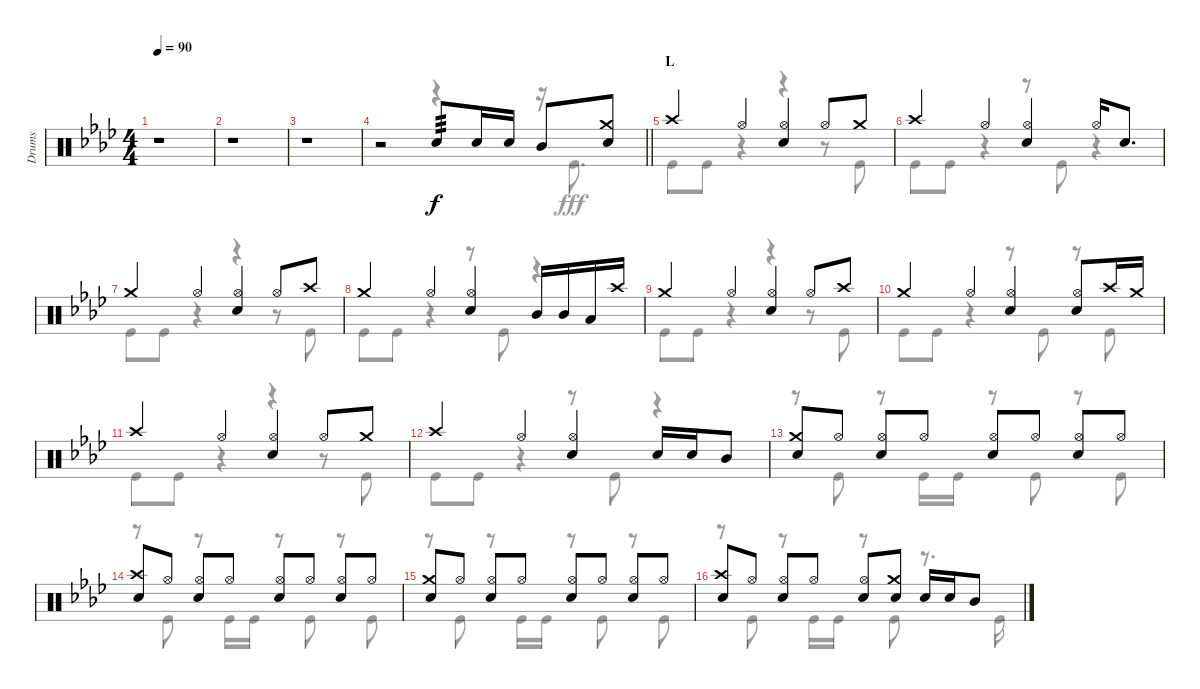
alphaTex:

\track ("Drums" "Drums") {instrument percussion}
\staff {score}
\articulation defaults
\voice
\ts (4 4)
\tempo 90
\clef neutral
\ks ab
r.1{dy f} |
r.1 |
r.1 |
\barLineRight lightlight
r.2 "Snare (hit) 2".8{tp 3} "Snare (hit) 2".16 "Snare (hit) 2".16 "Mid Tom (hit)".8 ("Crash medium (hit)" "Snare (hit) 2").8 |
\section ("" "L")
"Crash high (hit)".4 "Hi-Hat (open)".4 ("Hi-Hat (open)" "Snare (hit) 2").4 "Hi-Hat (open)".8 "Crash medium (hit)".8 |
"Crash high (hit)".4 "Hi-Hat (open)".4 ("Hi-Hat (open)" "Snare (hit) 2").4 "Hi-Hat (open)".16 "Snare (hit) 2".8{d} |
"Crash medium (hit)".4 "Hi-Hat (open)".4 ("Hi-Hat (open)" "Snare (hit) 2").4 "Hi-Hat (open)".8 "Crash high (hit)".8 |
"Crash medium (hit)".4 "Hi-Hat (open)".4 ("Hi-Hat (open)" "Snare (hit) 2").4 "Mid Tom (hit)".16 "Mid Tom (hit)".16 "Low Tom (hit)".16 "Crash high (hit)".16 |
"Crash medium (hit)".4 "Hi-Hat (open)".4 ("Hi-Hat (open)" "Snare (hit) 2").4 "Hi-Hat (open)".8 "Crash high (hit)".8 |
"Crash medium (hit)".4 "Hi-Hat (open)".4 ("Hi-Hat (open)" "Snare (hit) 2").4 ("Hi-Hat (open)" "Snare (hit) 2").8 "Crash high (hit)".16 "Crash medium (hit)".16 |
"Crash high (hit)".4 "Hi-Hat (open)".4 ("Hi-Hat (open)" "Snare (hit) 2").4 "Hi-Hat (open)".8 "Crash medium (hit)".8 |
"Crash high (hit)".4 "Hi-Hat (open)".4 ("Hi-Hat (open)" "Snare (hit) 2").4 "Snare (hit) 2".16 "Snare (hit) 2".16 "Mid Tom (hit)".8 |
("Crash medium (hit)" "Snare (hit) 2").8 "Hi-Hat (open)".8 ("Hi-Hat (open)" "Snare (hit) 2").8 "Hi-Hat (open)".8 ("Hi-Hat (open)" "Snare (hit) 2").8 "Hi-Hat (open)".8 ("Hi-Hat (open)" "Snare (hit) 2").8 "Hi-Hat (open)".8 |
("Crash high (hit)" "Snare (hit) 2").8 "Hi-Hat (open)".8 ("Hi-Hat (open)" "Snare (hit) 2").8 "Hi-Hat (open)".8 ("Hi-Hat (open)" "Snare (hit) 2").8 "Hi-Hat (open)".8 ("Hi-Hat (open)" "Snare (hit) 2").8 "Hi-Hat (open)".8 |
("Crash medium (hit)" "Snare (hit) 2").8 "Hi-Hat (open)".8 ("Hi-Hat (open)" "Snare (hit) 2").8 "Hi-Hat (open)".8 ("Hi-Hat (open)" "Snare (hit) 2").8 "Hi-Hat (open)".8 ("Hi-Hat (open)" "Snare (hit) 2").8 "Hi-Hat (open)".8 |
("Crash high (hit)" "Snare (hit) 2").8 "Hi-Hat (open)".8 ("Hi-Hat (open)" "Snare (hit) 2").8 "Hi-Hat (open)".8 ("Hi-Hat (open)" "Snare (hit) 2").8 ("Crash medium (hit)" "Snare (hit) 2").8 "Snare (hit) 2".16 "Snare (hit) 2".16 "Mid Tom (hit)".8
\voice
\clef neutral
\ottava regular
\simile none
\ks ab
r.1{dy fff} |
r.1 |
r.1 |
\barLineRight lightlight
r.2 r.4 r.16 "Kick (hit)".8{d} |
"Kick (hit)".8 "Kick (hit)".8 r.4 r.4 r.8 "Kick (hit)".8 |
"Kick (hit)".8 "Kick (hit)".8 r.4 r.8 "Kick (hit)".8 r.4 |
"Kick (hit)".8 "Kick (hit)".8 r.4 r.4 r.8 "Kick (hit)".8 |
"Kick (hit)".8 "Kick (hit)".8 r.4 r.8 "Kick (hit)".8 r.4 |
"Kick (hit)".8 "Kick (hit)".8 r.4 r.4 r.8 "Kick (hit)".8 |
"Kick (hit)".8 "Kick (hit)".8 r.4 r.8 "Kick (hit)".8 r.8 "Kick (hit)".8 |
"Kick (hit)".8 "Kick (hit)".8 r.4 r.4 r.8 "Kick (hit)".8 |
"Kick (hit)".8 "Kick (hit)".8 r.4 r.8 "Kick (hit)".8 r.4 |
r.8 "Kick (hit)".8 r.8 "Kick (hit)".16 "Kick (hit)".16 r.8 "Kick (hit)".8 r.8 "Kick (hit)".8 |
r.8 "Kick (hit)".8 r.8 "Kick (hit)".16 "Kick (hit)".16 r.8 "Kick (hit)".8 r.8 "Kick (hit)".8 |
r.8 "Kick (hit)".8 r.8 "Kick (hit)".16 "Kick (hit)".16 r.8 "Kick (hit)".8 r.8 "Kick (hit)".8 |
r.8 "Kick (hit)".8 r.8 "Kick (hit)".16 "Kick (hit)".16 r.8 "Kick (hit)".8 r.8{d} "Kick (hit)".16
